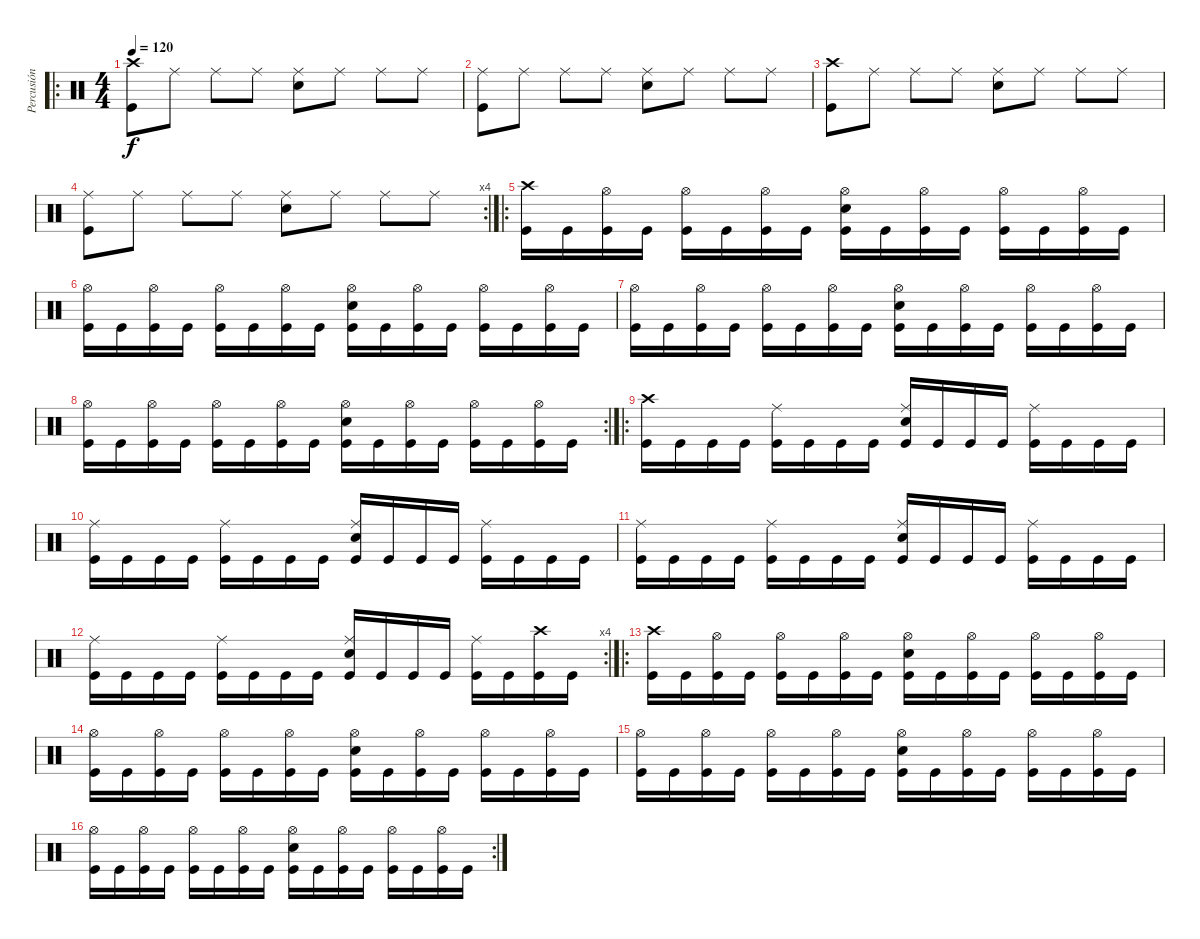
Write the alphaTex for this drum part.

\track ("Percusión" "Percusión") {instrument percussion}
\staff {score}
\articulation defaults
\ro
\ts (4 4)
\tempo 120
\clef neutral
\ks c
("Kick (hit)" "Crash high (hit)").8{dy f} "Ride (middle)".8 "Ride (middle)".8 "Ride (middle)".8 ("Electric Snare (hit)" "Ride (middle)").8 "Ride (middle)".8 "Ride (middle)".8 "Ride (middle)".8 |
("Ride (middle)" "Kick (hit)").8 "Ride (middle)".8 "Ride (middle)".8 "Ride (middle)".8 ("Electric Snare (hit)" "Ride (middle)").8 "Ride (middle)".8 "Ride (middle)".8 "Ride (middle)".8 |
("Crash high (hit)" "Kick (hit)").8 "Ride (middle)".8 "Ride (middle)".8 "Ride (middle)".8 ("Electric Snare (hit)" "Ride (middle)").8 "Ride (middle)".8 "Ride (middle)".8 "Ride (middle)".8 |
\rc 4
("Ride (middle)" "Kick (hit)").8 "Ride (middle)".8 "Ride (middle)".8 "Ride (middle)".8 ("Electric Snare (hit)" "Ride (middle)").8 "Ride (middle)".8 "Ride (middle)".8 "Ride (middle)".8 |
\ro
("Crash high (hit)" "Kick (hit)").16 "Kick (hit)".16 ("Kick (hit)" "Hi-Hat (open)").16 "Kick (hit)".16 ("Kick (hit)" "Hi-Hat (open)").16 "Kick (hit)".16 ("Kick (hit)" "Hi-Hat (open)").16 "Kick (hit)".16 ("Electric Snare (hit)" "Kick (hit)" "Hi-Hat (open)").16 "Kick (hit)".16 ("Kick (hit)" "Hi-Hat (open)").16 "Kick (hit)".16 ("Kick (hit)" "Hi-Hat (open)").16 "Kick (hit)".16 ("Kick (hit)" "Hi-Hat (open)").16 "Kick (hit)".16 |
("Hi-Hat (open)" "Kick (hit)").16 "Kick (hit)".16 ("Kick (hit)" "Hi-Hat (open)").16 "Kick (hit)".16 ("Kick (hit)" "Hi-Hat (open)").16 "Kick (hit)".16 ("Kick (hit)" "Hi-Hat (open)").16 "Kick (hit)".16 ("Electric Snare (hit)" "Kick (hit)" "Hi-Hat (open)").16 "Kick (hit)".16 ("Kick (hit)" "Hi-Hat (open)").16 "Kick (hit)".16 ("Kick (hit)" "Hi-Hat (open)").16 "Kick (hit)".16 ("Kick (hit)" "Hi-Hat (open)").16 "Kick (hit)".16 |
("Hi-Hat (open)" "Kick (hit)").16 "Kick (hit)".16 ("Kick (hit)" "Hi-Hat (open)").16 "Kick (hit)".16 ("Kick (hit)" "Hi-Hat (open)").16 "Kick (hit)".16 ("Kick (hit)" "Hi-Hat (open)").16 "Kick (hit)".16 ("Electric Snare (hit)" "Kick (hit)" "Hi-Hat (open)").16 "Kick (hit)".16 ("Kick (hit)" "Hi-Hat (open)").16 "Kick (hit)".16 ("Kick (hit)" "Hi-Hat (open)").16 "Kick (hit)".16 ("Kick (hit)" "Hi-Hat (open)").16 "Kick (hit)".16 |
\rc 2
("Hi-Hat (open)" "Kick (hit)").16 "Kick (hit)".16 ("Kick (hit)" "Hi-Hat (open)").16 "Kick (hit)".16 ("Kick (hit)" "Hi-Hat (open)").16 "Kick (hit)".16 ("Kick (hit)" "Hi-Hat (open)").16 "Kick (hit)".16 ("Electric Snare (hit)" "Kick (hit)" "Hi-Hat (open)").16 "Kick (hit)".16 ("Kick (hit)" "Hi-Hat (open)").16 "Kick (hit)".16 ("Kick (hit)" "Hi-Hat (open)").16 "Kick (hit)".16 ("Kick (hit)" "Hi-Hat (open)").16 "Kick (hit)".16 |
\ro
("Crash high (hit)" "Kick (hit)").16 "Kick (hit)".16 "Kick (hit)".16 "Kick (hit)".16 ("Kick (hit)" "Ride (middle)").16 "Kick (hit)".16 "Kick (hit)".16 "Kick (hit)".16 ("Electric Snare (hit)" "Kick (hit)" "Ride (middle)").16 "Kick (hit)".16 "Kick (hit)".16 "Kick (hit)".16 ("Kick (hit)" "Ride (middle)").16 "Kick (hit)".16 "Kick (hit)".16 "Kick (hit)".16 |
("Ride (middle)" "Kick (hit)").16 "Kick (hit)".16 "Kick (hit)".16 "Kick (hit)".16 ("Kick (hit)" "Ride (middle)").16 "Kick (hit)".16 "Kick (hit)".16 "Kick (hit)".16 ("Electric Snare (hit)" "Kick (hit)" "Ride (middle)").16 "Kick (hit)".16 "Kick (hit)".16 "Kick (hit)".16 ("Kick (hit)" "Ride (middle)").16 "Kick (hit)".16 "Kick (hit)".16 "Kick (hit)".16 |
("Ride (middle)" "Kick (hit)").16 "Kick (hit)".16 "Kick (hit)".16 "Kick (hit)".16 ("Kick (hit)" "Ride (middle)").16 "Kick (hit)".16 "Kick (hit)".16 "Kick (hit)".16 ("Electric Snare (hit)" "Kick (hit)" "Ride (middle)").16 "Kick (hit)".16 "Kick (hit)".16 "Kick (hit)".16 ("Kick (hit)" "Ride (middle)").16 "Kick (hit)".16 "Kick (hit)".16 "Kick (hit)".16 |
\rc 4
("Ride (middle)" "Kick (hit)").16 "Kick (hit)".16 "Kick (hit)".16 "Kick (hit)".16 ("Kick (hit)" "Ride (middle)").16 "Kick (hit)".16 "Kick (hit)".16 "Kick (hit)".16 ("Electric Snare (hit)" "Kick (hit)" "Ride (middle)").16 "Kick (hit)".16 "Kick (hit)".16 "Kick (hit)".16 ("Kick (hit)" "Ride (middle)").16 "Kick (hit)".16 ("Kick (hit)" "Crash high (hit)").16 "Kick (hit)".16 |
\ro
("Crash high (hit)" "Kick (hit)").16 "Kick (hit)".16 ("Kick (hit)" "Hi-Hat (open)").16 "Kick (hit)".16 ("Kick (hit)" "Hi-Hat (open)").16 "Kick (hit)".16 ("Kick (hit)" "Hi-Hat (open)").16 "Kick (hit)".16 ("Electric Snare (hit)" "Kick (hit)" "Hi-Hat (open)").16 "Kick (hit)".16 ("Kick (hit)" "Hi-Hat (open)").16 "Kick (hit)".16 ("Kick (hit)" "Hi-Hat (open)").16 "Kick (hit)".16 ("Kick (hit)" "Hi-Hat (open)").16 "Kick (hit)".16 |
("Hi-Hat (open)" "Kick (hit)").16 "Kick (hit)".16 ("Kick (hit)" "Hi-Hat (open)").16 "Kick (hit)".16 ("Kick (hit)" "Hi-Hat (open)").16 "Kick (hit)".16 ("Kick (hit)" "Hi-Hat (open)").16 "Kick (hit)".16 ("Electric Snare (hit)" "Kick (hit)" "Hi-Hat (open)").16 "Kick (hit)".16 ("Kick (hit)" "Hi-Hat (open)").16 "Kick (hit)".16 ("Kick (hit)" "Hi-Hat (open)").16 "Kick (hit)".16 ("Kick (hit)" "Hi-Hat (open)").16 "Kick (hit)".16 |
("Hi-Hat (open)" "Kick (hit)").16 "Kick (hit)".16 ("Kick (hit)" "Hi-Hat (open)").16 "Kick (hit)".16 ("Kick (hit)" "Hi-Hat (open)").16 "Kick (hit)".16 ("Kick (hit)" "Hi-Hat (open)").16 "Kick (hit)".16 ("Electric Snare (hit)" "Kick (hit)" "Hi-Hat (open)").16 "Kick (hit)".16 ("Kick (hit)" "Hi-Hat (open)").16 "Kick (hit)".16 ("Kick (hit)" "Hi-Hat (open)").16 "Kick (hit)".16 ("Kick (hit)" "Hi-Hat (open)").16 "Kick (hit)".16 |
\rc 2
("Hi-Hat (open)" "Kick (hit)").16 "Kick (hit)".16 ("Kick (hit)" "Hi-Hat (open)").16 "Kick (hit)".16 ("Kick (hit)" "Hi-Hat (open)").16 "Kick (hit)".16 ("Kick (hit)" "Hi-Hat (open)").16 "Kick (hit)".16 ("Electric Snare (hit)" "Kick (hit)" "Hi-Hat (open)").16 "Kick (hit)".16 ("Kick (hit)" "Hi-Hat (open)").16 "Kick (hit)".16 ("Kick (hit)" "Hi-Hat (open)").16 "Kick (hit)".16 ("Kick (hit)" "Hi-Hat (open)").16 "Kick (hit)".16
